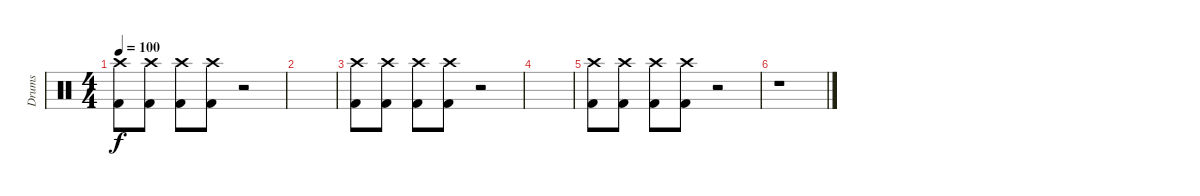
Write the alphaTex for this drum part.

\track ("Drums" "Drums") {instrument percussion}
\staff {score}
\articulation defaults
\ts (4 4)
\tempo 100
\clef neutral
\ks c
("Crash high (hit)" "Kick (hit) 2").8{dy f} ("Crash high (hit)" "Kick (hit) 2").8 ("Crash high (hit)" "Kick (hit) 2").8 ("Crash high (hit)" "Kick (hit) 2").8 r.2 |
|
("Crash high (hit)" "Kick (hit) 2").8 ("Crash high (hit)" "Kick (hit) 2").8 ("Crash high (hit)" "Kick (hit) 2").8 ("Crash high (hit)" "Kick (hit) 2").8 r.2 |
|
("Crash high (hit)" "Kick (hit) 2").8 ("Crash high (hit)" "Kick (hit) 2").8 ("Crash high (hit)" "Kick (hit) 2").8 ("Crash high (hit)" "Kick (hit) 2").8 r.2 |
r.1
